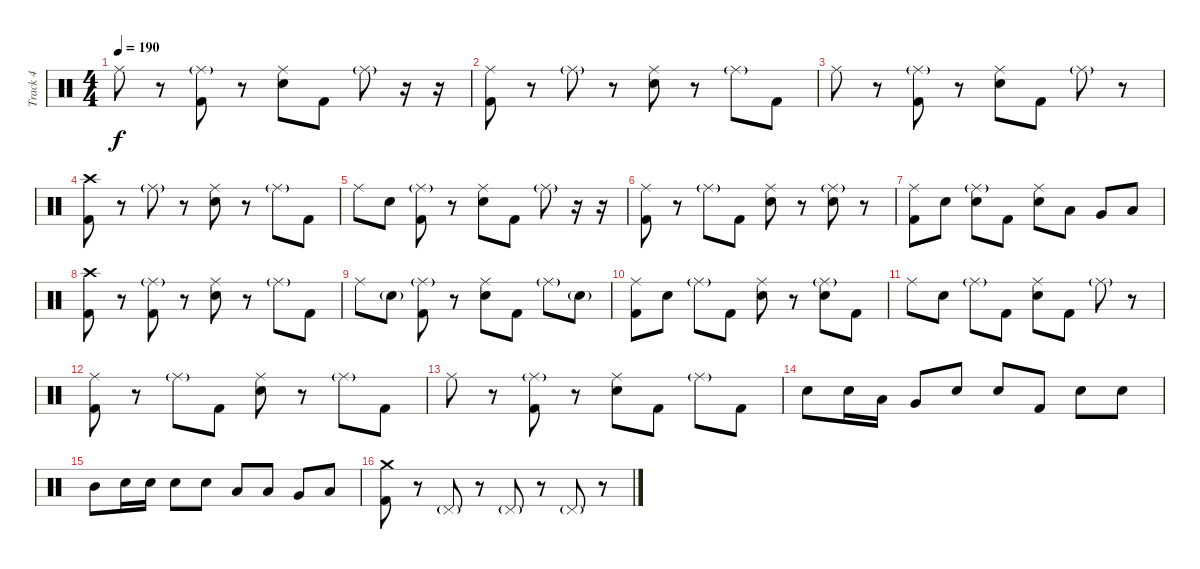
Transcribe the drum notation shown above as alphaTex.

\track ("Track 4" "Track 4") {instrument percussion}
\staff {score}
\articulation defaults
\ts (4 4)
\tempo 190
\clef neutral
\ks c "Ride (middle)".8{dy f}
r.8 ("Ride (middle)"{g} "Kick (hit) 2").8 r.8 ("Ride (middle)" "Electric Snare (hit)").8 "Kick (hit) 2".8 "Ride (middle)"{g}.8 r.16 r.16 |
("Ride (middle)" "Kick (hit) 2").8 r.8 "Ride (middle)"{g}.8 r.8 ("Ride (middle)" "Electric Snare (hit)").8 r.8 "Ride (middle)"{g}.8 "Kick (hit) 2".8 |
"Ride (middle)".8 r.8 ("Ride (middle)"{g} "Kick (hit) 2").8 r.8 ("Ride (middle)" "Electric Snare (hit)").8 "Kick (hit) 2".8 "Ride (middle)"{g}.8 r.8 |
("Crash high (hit)" "Kick (hit) 2").8 r.8 "Ride (middle)"{g}.8 r.8 ("Ride (middle)" "Electric Snare (hit)").8 r.8 "Ride (middle)"{g}.8 "Kick (hit) 2".8 |
"Ride (middle)".8 "Electric Snare (hit)".8 ("Ride (middle)"{g} "Kick (hit) 2").8 r.8 ("Ride (middle)" "Electric Snare (hit)").8 "Kick (hit) 2".8 "Ride (middle)"{g}.8 r.16 r.16 |
("Ride (middle)" "Kick (hit) 2").8 r.8 "Ride (middle)"{g}.8 "Kick (hit) 2".8 ("Ride (middle)" "Electric Snare (hit)").8 r.8 ("Ride (middle)"{g} "Electric Snare (hit)").8 r.8 |
("Ride (middle)" "Kick (hit) 2").8 "Electric Snare (hit)".8 ("Ride (middle)"{g} "Electric Snare (hit)").8 "Kick (hit) 2".8 ("Ride (middle)" "Electric Snare (hit)").8 "Low Tom (hit)".8 "Very Low Tom (hit)".8 "Low Floor Tom (hit)".8 |
("Crash high (hit)" "Kick (hit) 2").8 r.8 ("Ride (middle)"{g} "Kick (hit) 2").8 r.8 ("Ride (middle)" "Electric Snare (hit)").8 r.8 "Ride (middle)"{g}.8 "Kick (hit) 2".8 |
"Ride (middle)".8 "Electric Snare (hit)"{g}.8 ("Ride (middle)"{g} "Kick (hit) 2").8 r.8 ("Ride (middle)" "Electric Snare (hit)").8 "Kick (hit) 2".8 "Ride (middle)"{g}.8 "Electric Snare (hit)"{g}.8 |
("Ride (middle)" "Kick (hit) 2").8 "Electric Snare (hit)".8 "Ride (middle)"{g}.8 "Kick (hit) 2".8 ("Ride (middle)" "Electric Snare (hit)").8 r.8 ("Ride (middle)"{g} "Electric Snare (hit)").8 "Kick (hit) 2".8 |
"Ride (middle)".8 "Electric Snare (hit)".8 "Ride (middle)"{g}.8 "Kick (hit) 2".8 ("Ride (middle)" "Electric Snare (hit)").8 "Kick (hit) 2".8 "Ride (middle)"{g}.8 r.8 |
("Ride (middle)" "Kick (hit) 2").8 r.8 "Ride (middle)"{g}.8 "Kick (hit) 2".8 ("Ride (middle)" "Electric Snare (hit)").8 r.8 "Ride (middle)"{g}.8 "Kick (hit) 2".8 |
"Ride (middle)".8 r.8 ("Ride (middle)"{g} "Kick (hit) 2").8 r.8 ("Ride (middle)" "Electric Snare (hit)").8 "Kick (hit) 2".8 "Ride (middle)"{g}.8 "Kick (hit) 2".8 |
"Electric Snare (hit)".8 "Electric Snare (hit)".16 "Low Tom (hit)".16 "Very Low Tom (hit)".8 "Electric Snare (hit)".8 "Electric Snare (hit)".8 "Kick (hit) 2".8 "Electric Snare (hit)".8 "Electric Snare (hit)".8 |
"Mid Tom (hit)".8 "Electric Snare (hit)".16 "Electric Snare (hit)".16 "Electric Snare (hit)".8 "Electric Snare (hit)".8 "Low Tom (hit)".8 "Low Tom (hit)".8 "Very Low Tom (hit)".8 "Low Floor Tom (hit)".8 |
("Crash medium (hit)" "Kick (hit) 2").8 r.8 "Pedal Hi-Hat (hit)"{g}.8 r.8 "Pedal Hi-Hat (hit)"{g}.8 r.8 "Pedal Hi-Hat (hit)"{g}.8 r.8
